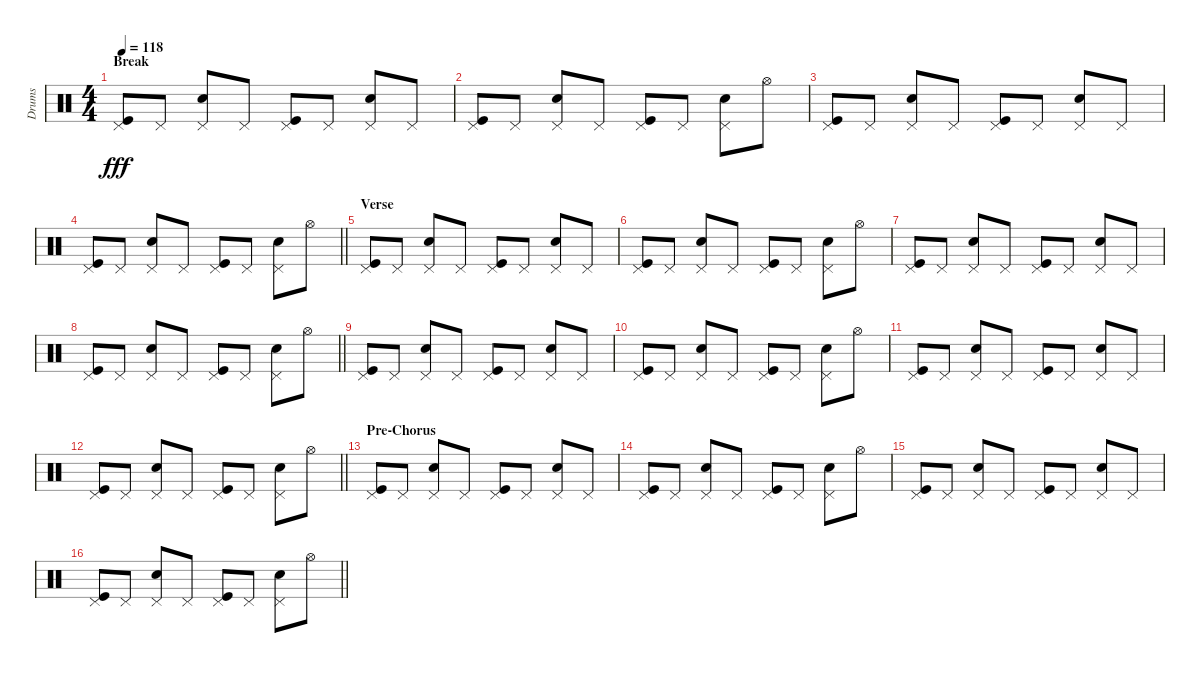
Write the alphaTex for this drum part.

\track ("Drums" "Drums") {instrument percussion}
\staff {score}
\articulation defaults
\ts (4 4)
\section ("" "Break")
\tempo 118
\clef neutral
\ks c
("Pedal Hi-Hat (hit)" "Kick (hit)").8{dy fff} "Pedal Hi-Hat (hit)".8 ("Pedal Hi-Hat (hit)" "Electric Snare (hit)").8 "Pedal Hi-Hat (hit)".8 ("Pedal Hi-Hat (hit)" "Kick (hit)").8 "Pedal Hi-Hat (hit)".8 ("Pedal Hi-Hat (hit)" "Electric Snare (hit)").8 "Pedal Hi-Hat (hit)".8 |
("Pedal Hi-Hat (hit)" "Kick (hit)").8 "Pedal Hi-Hat (hit)".8 ("Pedal Hi-Hat (hit)" "Electric Snare (hit)").8 "Pedal Hi-Hat (hit)".8 ("Pedal Hi-Hat (hit)" "Kick (hit)").8 "Pedal Hi-Hat (hit)".8 ("Pedal Hi-Hat (hit)" "Electric Snare (hit)").8 "Hi-Hat (open)".8 |
("Pedal Hi-Hat (hit)" "Kick (hit)").8 "Pedal Hi-Hat (hit)".8 ("Pedal Hi-Hat (hit)" "Electric Snare (hit)").8 "Pedal Hi-Hat (hit)".8 ("Pedal Hi-Hat (hit)" "Kick (hit)").8 "Pedal Hi-Hat (hit)".8 ("Pedal Hi-Hat (hit)" "Electric Snare (hit)").8 "Pedal Hi-Hat (hit)".8 |
\barLineRight lightlight
("Pedal Hi-Hat (hit)" "Kick (hit)").8 "Pedal Hi-Hat (hit)".8 ("Pedal Hi-Hat (hit)" "Electric Snare (hit)").8 "Pedal Hi-Hat (hit)".8 ("Pedal Hi-Hat (hit)" "Kick (hit)").8 "Pedal Hi-Hat (hit)".8 ("Pedal Hi-Hat (hit)" "Electric Snare (hit)").8 "Hi-Hat (open)".8 |
\section ("" "Verse")
("Pedal Hi-Hat (hit)" "Kick (hit)").8 "Pedal Hi-Hat (hit)".8 ("Pedal Hi-Hat (hit)" "Electric Snare (hit)").8 "Pedal Hi-Hat (hit)".8 ("Pedal Hi-Hat (hit)" "Kick (hit)").8 "Pedal Hi-Hat (hit)".8 ("Pedal Hi-Hat (hit)" "Electric Snare (hit)").8 "Pedal Hi-Hat (hit)".8 |
("Pedal Hi-Hat (hit)" "Kick (hit)").8 "Pedal Hi-Hat (hit)".8 ("Pedal Hi-Hat (hit)" "Electric Snare (hit)").8 "Pedal Hi-Hat (hit)".8 ("Pedal Hi-Hat (hit)" "Kick (hit)").8 "Pedal Hi-Hat (hit)".8 ("Pedal Hi-Hat (hit)" "Electric Snare (hit)").8 "Hi-Hat (open)".8 |
("Pedal Hi-Hat (hit)" "Kick (hit)").8 "Pedal Hi-Hat (hit)".8 ("Pedal Hi-Hat (hit)" "Electric Snare (hit)").8 "Pedal Hi-Hat (hit)".8 ("Pedal Hi-Hat (hit)" "Kick (hit)").8 "Pedal Hi-Hat (hit)".8 ("Pedal Hi-Hat (hit)" "Electric Snare (hit)").8 "Pedal Hi-Hat (hit)".8 |
\barLineRight lightlight
("Pedal Hi-Hat (hit)" "Kick (hit)").8 "Pedal Hi-Hat (hit)".8 ("Pedal Hi-Hat (hit)" "Electric Snare (hit)").8 "Pedal Hi-Hat (hit)".8 ("Pedal Hi-Hat (hit)" "Kick (hit)").8 "Pedal Hi-Hat (hit)".8 ("Pedal Hi-Hat (hit)" "Electric Snare (hit)").8 "Hi-Hat (open)".8 |
("Pedal Hi-Hat (hit)" "Kick (hit)").8 "Pedal Hi-Hat (hit)".8 ("Pedal Hi-Hat (hit)" "Electric Snare (hit)").8 "Pedal Hi-Hat (hit)".8 ("Pedal Hi-Hat (hit)" "Kick (hit)").8 "Pedal Hi-Hat (hit)".8 ("Pedal Hi-Hat (hit)" "Electric Snare (hit)").8 "Pedal Hi-Hat (hit)".8 |
("Pedal Hi-Hat (hit)" "Kick (hit)").8 "Pedal Hi-Hat (hit)".8 ("Pedal Hi-Hat (hit)" "Electric Snare (hit)").8 "Pedal Hi-Hat (hit)".8 ("Pedal Hi-Hat (hit)" "Kick (hit)").8 "Pedal Hi-Hat (hit)".8 ("Pedal Hi-Hat (hit)" "Electric Snare (hit)").8 "Hi-Hat (open)".8 |
("Pedal Hi-Hat (hit)" "Kick (hit)").8 "Pedal Hi-Hat (hit)".8 ("Pedal Hi-Hat (hit)" "Electric Snare (hit)").8 "Pedal Hi-Hat (hit)".8 ("Pedal Hi-Hat (hit)" "Kick (hit)").8 "Pedal Hi-Hat (hit)".8 ("Pedal Hi-Hat (hit)" "Electric Snare (hit)").8 "Pedal Hi-Hat (hit)".8 |
\barLineRight lightlight
("Pedal Hi-Hat (hit)" "Kick (hit)").8 "Pedal Hi-Hat (hit)".8 ("Pedal Hi-Hat (hit)" "Electric Snare (hit)").8 "Pedal Hi-Hat (hit)".8 ("Pedal Hi-Hat (hit)" "Kick (hit)").8 "Pedal Hi-Hat (hit)".8 ("Pedal Hi-Hat (hit)" "Electric Snare (hit)").8 "Hi-Hat (open)".8 |
\section ("" "Pre-Chorus")
("Pedal Hi-Hat (hit)" "Kick (hit)").8 "Pedal Hi-Hat (hit)".8 ("Pedal Hi-Hat (hit)" "Electric Snare (hit)").8 "Pedal Hi-Hat (hit)".8 ("Pedal Hi-Hat (hit)" "Kick (hit)").8 "Pedal Hi-Hat (hit)".8 ("Pedal Hi-Hat (hit)" "Electric Snare (hit)").8 "Pedal Hi-Hat (hit)".8 |
("Pedal Hi-Hat (hit)" "Kick (hit)").8 "Pedal Hi-Hat (hit)".8 ("Pedal Hi-Hat (hit)" "Electric Snare (hit)").8 "Pedal Hi-Hat (hit)".8 ("Pedal Hi-Hat (hit)" "Kick (hit)").8 "Pedal Hi-Hat (hit)".8 ("Pedal Hi-Hat (hit)" "Electric Snare (hit)").8 "Hi-Hat (open)".8 |
("Pedal Hi-Hat (hit)" "Kick (hit)").8 "Pedal Hi-Hat (hit)".8 ("Pedal Hi-Hat (hit)" "Electric Snare (hit)").8 "Pedal Hi-Hat (hit)".8 ("Pedal Hi-Hat (hit)" "Kick (hit)").8 "Pedal Hi-Hat (hit)".8 ("Pedal Hi-Hat (hit)" "Electric Snare (hit)").8 "Pedal Hi-Hat (hit)".8 |
\barLineRight lightlight
("Pedal Hi-Hat (hit)" "Kick (hit)").8 "Pedal Hi-Hat (hit)".8 ("Pedal Hi-Hat (hit)" "Electric Snare (hit)").8 "Pedal Hi-Hat (hit)".8 ("Pedal Hi-Hat (hit)" "Kick (hit)").8 "Pedal Hi-Hat (hit)".8 ("Pedal Hi-Hat (hit)" "Electric Snare (hit)").8 "Hi-Hat (open)".8
